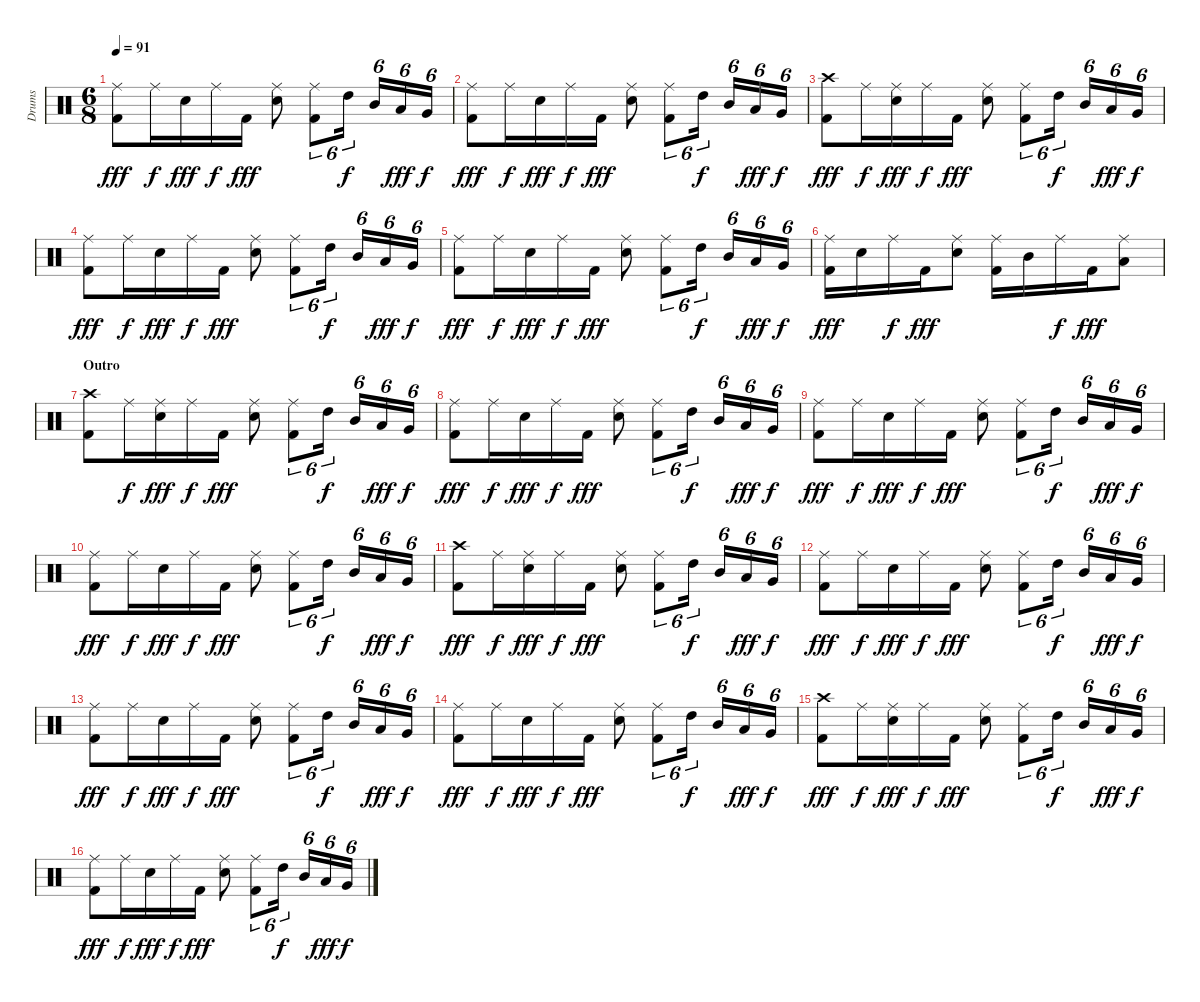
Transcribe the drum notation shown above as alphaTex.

\track ("Drums" "Drums") {instrument percussion}
\staff {score}
\articulation defaults
\ts (6 8)
\tempo 91
\clef neutral
\ks c
("Ride (middle)" "Kick (hit) 2").8{dy fff} "Ride (middle)".16{dy f} "Electric Snare (hit)".16{dy fff} "Ride (middle)".16{dy f} "Kick (hit) 2".16{dy fff} ("Ride (middle)" "Electric Snare (hit)").8 ("Ride (middle)" "Kick (hit) 2").8{tu (6 4)} "High Tom (hit)".16{tu (6 4) dy f} "Mid Tom (hit)".16{tu (6 4)} "Low Tom (hit)".16{tu (6 4) dy fff} "Very Low Tom (hit)".16{tu (6 4) dy f} |
("Ride (middle)" "Kick (hit) 2").8{dy fff} "Ride (middle)".16{dy f} "Electric Snare (hit)".16{dy fff} "Ride (middle)".16{dy f} "Kick (hit) 2".16{dy fff} ("Ride (middle)" "Electric Snare (hit)").8 ("Ride (middle)" "Kick (hit) 2").8{tu (6 4)} "High Tom (hit)".16{tu (6 4) dy f} "Mid Tom (hit)".16{tu (6 4)} "Low Tom (hit)".16{tu (6 4) dy fff} "Very Low Tom (hit)".16{tu (6 4) dy f} |
("Crash high (hit)" "Kick (hit) 2").8{dy fff} "Ride (middle)".16{dy f} ("Ride (middle)" "Electric Snare (hit)").16{dy fff} "Ride (middle)".16{dy f} "Kick (hit) 2".16{dy fff} ("Ride (middle)" "Electric Snare (hit)").8 ("Ride (middle)" "Kick (hit) 2").8{tu (6 4)} "High Tom (hit)".16{tu (6 4) dy f} "Mid Tom (hit)".16{tu (6 4)} "Low Tom (hit)".16{tu (6 4) dy fff} "Very Low Tom (hit)".16{tu (6 4) dy f} |
("Ride (middle)" "Kick (hit) 2").8{dy fff} "Ride (middle)".16{dy f} "Electric Snare (hit)".16{dy fff} "Ride (middle)".16{dy f} "Kick (hit) 2".16{dy fff} ("Ride (middle)" "Electric Snare (hit)").8 ("Ride (middle)" "Kick (hit) 2").8{tu (6 4)} "High Tom (hit)".16{tu (6 4) dy f} "Mid Tom (hit)".16{tu (6 4)} "Low Tom (hit)".16{tu (6 4) dy fff} "Very Low Tom (hit)".16{tu (6 4) dy f} |
("Ride (middle)" "Kick (hit) 2").8{dy fff} "Ride (middle)".16{dy f} "Electric Snare (hit)".16{dy fff} "Ride (middle)".16{dy f} "Kick (hit) 2".16{dy fff} ("Ride (middle)" "Electric Snare (hit)").8 ("Ride (middle)" "Kick (hit) 2").8{tu (6 4)} "High Tom (hit)".16{tu (6 4) dy f} "Mid Tom (hit)".16{tu (6 4)} "Low Tom (hit)".16{tu (6 4) dy fff} "Very Low Tom (hit)".16{tu (6 4) dy f} |
("Ride (middle)" "Kick (hit) 2").16{dy fff} "Electric Snare (hit)".16 "Ride (middle)".16{dy f} "Kick (hit) 2".16{dy fff} ("Ride (middle)" "Electric Snare (hit)").8 ("Ride (middle)" "Kick (hit) 2").16 "Mid Tom (hit)".16 "Ride (middle)".16{dy f} "Kick (hit) 2".16{dy fff} ("Ride (middle)" "Low Tom (hit)").8 |
\section ("" "Outro")
("Crash high (hit)" "Kick (hit) 2").8 "Ride (middle)".16{dy f} ("Ride (middle)" "Electric Snare (hit)").16{dy fff} "Ride (middle)".16{dy f} "Kick (hit) 2".16{dy fff} ("Ride (middle)" "Electric Snare (hit)").8 ("Ride (middle)" "Kick (hit) 2").8{tu (6 4)} "High Tom (hit)".16{tu (6 4) dy f} "Mid Tom (hit)".16{tu (6 4)} "Low Tom (hit)".16{tu (6 4) dy fff} "Very Low Tom (hit)".16{tu (6 4) dy f} |
("Ride (middle)" "Kick (hit) 2").8{dy fff} "Ride (middle)".16{dy f} "Electric Snare (hit)".16{dy fff} "Ride (middle)".16{dy f} "Kick (hit) 2".16{dy fff} ("Ride (middle)" "Electric Snare (hit)").8 ("Ride (middle)" "Kick (hit) 2").8{tu (6 4)} "High Tom (hit)".16{tu (6 4) dy f} "Mid Tom (hit)".16{tu (6 4)} "Low Tom (hit)".16{tu (6 4) dy fff} "Very Low Tom (hit)".16{tu (6 4) dy f} |
("Ride (middle)" "Kick (hit) 2").8{dy fff} "Ride (middle)".16{dy f} "Electric Snare (hit)".16{dy fff} "Ride (middle)".16{dy f} "Kick (hit) 2".16{dy fff} ("Ride (middle)" "Electric Snare (hit)").8 ("Ride (middle)" "Kick (hit) 2").8{tu (6 4)} "High Tom (hit)".16{tu (6 4) dy f} "Mid Tom (hit)".16{tu (6 4)} "Low Tom (hit)".16{tu (6 4) dy fff} "Very Low Tom (hit)".16{tu (6 4) dy f} |
("Ride (middle)" "Kick (hit) 2").8{dy fff} "Ride (middle)".16{dy f} "Electric Snare (hit)".16{dy fff} "Ride (middle)".16{dy f} "Kick (hit) 2".16{dy fff} ("Ride (middle)" "Electric Snare (hit)").8 ("Ride (middle)" "Kick (hit) 2").8{tu (6 4)} "High Tom (hit)".16{tu (6 4) dy f} "Mid Tom (hit)".16{tu (6 4)} "Low Tom (hit)".16{tu (6 4) dy fff} "Very Low Tom (hit)".16{tu (6 4) dy f} |
("Crash high (hit)" "Kick (hit) 2").8{dy fff} "Ride (middle)".16{dy f} ("Ride (middle)" "Electric Snare (hit)").16{dy fff} "Ride (middle)".16{dy f} "Kick (hit) 2".16{dy fff} ("Ride (middle)" "Electric Snare (hit)").8 ("Ride (middle)" "Kick (hit) 2").8{tu (6 4)} "High Tom (hit)".16{tu (6 4) dy f} "Mid Tom (hit)".16{tu (6 4)} "Low Tom (hit)".16{tu (6 4) dy fff} "Very Low Tom (hit)".16{tu (6 4) dy f} |
("Ride (middle)" "Kick (hit) 2").8{dy fff} "Ride (middle)".16{dy f} "Electric Snare (hit)".16{dy fff} "Ride (middle)".16{dy f} "Kick (hit) 2".16{dy fff} ("Ride (middle)" "Electric Snare (hit)").8 ("Ride (middle)" "Kick (hit) 2").8{tu (6 4)} "High Tom (hit)".16{tu (6 4) dy f} "Mid Tom (hit)".16{tu (6 4)} "Low Tom (hit)".16{tu (6 4) dy fff} "Very Low Tom (hit)".16{tu (6 4) dy f} |
("Ride (middle)" "Kick (hit) 2").8{dy fff} "Ride (middle)".16{dy f} "Electric Snare (hit)".16{dy fff} "Ride (middle)".16{dy f} "Kick (hit) 2".16{dy fff} ("Ride (middle)" "Electric Snare (hit)").8 ("Ride (middle)" "Kick (hit) 2").8{tu (6 4)} "High Tom (hit)".16{tu (6 4) dy f} "Mid Tom (hit)".16{tu (6 4)} "Low Tom (hit)".16{tu (6 4) dy fff} "Very Low Tom (hit)".16{tu (6 4) dy f} |
("Ride (middle)" "Kick (hit) 2").8{dy fff} "Ride (middle)".16{dy f} "Electric Snare (hit)".16{dy fff} "Ride (middle)".16{dy f} "Kick (hit) 2".16{dy fff} ("Ride (middle)" "Electric Snare (hit)").8 ("Ride (middle)" "Kick (hit) 2").8{tu (6 4)} "High Tom (hit)".16{tu (6 4) dy f} "Mid Tom (hit)".16{tu (6 4)} "Low Tom (hit)".16{tu (6 4) dy fff} "Very Low Tom (hit)".16{tu (6 4) dy f} |
("Crash high (hit)" "Kick (hit) 2").8{dy fff} "Ride (middle)".16{dy f} ("Ride (middle)" "Electric Snare (hit)").16{dy fff} "Ride (middle)".16{dy f} "Kick (hit) 2".16{dy fff} ("Ride (middle)" "Electric Snare (hit)").8 ("Ride (middle)" "Kick (hit) 2").8{tu (6 4)} "High Tom (hit)".16{tu (6 4) dy f} "Mid Tom (hit)".16{tu (6 4)} "Low Tom (hit)".16{tu (6 4) dy fff} "Very Low Tom (hit)".16{tu (6 4) dy f} |
("Ride (middle)" "Kick (hit) 2").8{dy fff} "Ride (middle)".16{dy f} "Electric Snare (hit)".16{dy fff} "Ride (middle)".16{dy f} "Kick (hit) 2".16{dy fff} ("Ride (middle)" "Electric Snare (hit)").8 ("Ride (middle)" "Kick (hit) 2").8{tu (6 4)} "High Tom (hit)".16{tu (6 4) dy f} "Mid Tom (hit)".16{tu (6 4)} "Low Tom (hit)".16{tu (6 4) dy fff} "Very Low Tom (hit)".16{tu (6 4) dy f}
